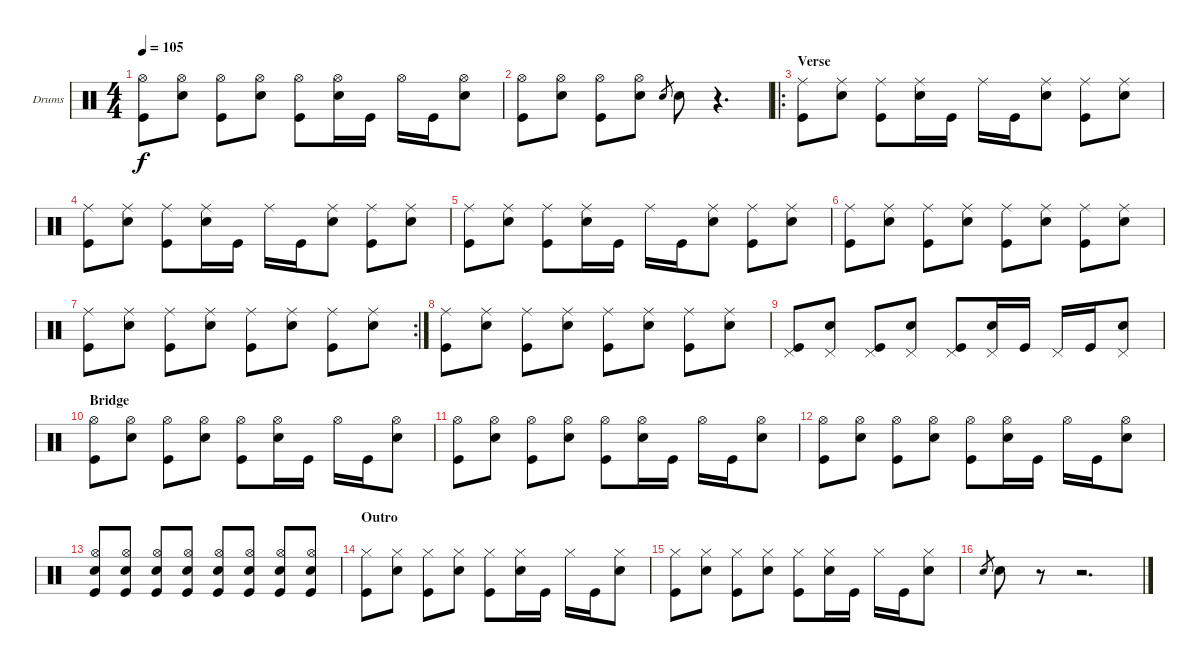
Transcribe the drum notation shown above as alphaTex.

\bracketExtendMode groupsimilarinstruments
\firstSystemTrackNameOrientation horizontal
\otherSystemsTrackNameOrientation horizontal
\track ("Fabrizio" "Drums") {instrument percussion}
\staff {score}
\articulation defaults
\ts (4 4)
\tempo 105
\clef neutral
\ks c
("Kick (hit)" "Hi-Hat (open)").8{dy f} ("Snare (hit) 2" "Hi-Hat (open)").8 ("Kick (hit)" "Hi-Hat (open)").8 ("Snare (hit) 2" "Hi-Hat (open)").8 ("Kick (hit)" "Hi-Hat (open)").8 ("Snare (hit) 2" "Hi-Hat (open)").16 "Kick (hit)".16 "Hi-Hat (open)".16 "Kick (hit)".16 ("Snare (hit) 2" "Hi-Hat (open)").8 |
("Kick (hit)" "Hi-Hat (open)").8 ("Snare (hit) 2" "Hi-Hat (open)").8 ("Kick (hit)" "Hi-Hat (open)").8 ("Snare (hit) 2" "Hi-Hat (open)").8 "Snare (hit) 2".8{gr} "Snare (hit) 2".8 r.4{d} |
\ro
\section ("" "Verse")
("Ride (middle)" "Kick (hit)").8 ("Ride (middle)" "Snare (hit) 2").8 ("Ride (middle)" "Kick (hit)").8 ("Ride (middle)" "Snare (hit) 2").16 "Kick (hit)".16 "Ride (middle)".16 "Kick (hit)".16 ("Ride (middle)" "Snare (hit) 2").8 ("Ride (middle)" "Kick (hit)").8 ("Ride (middle)" "Snare (hit) 2").8 |
("Ride (middle)" "Kick (hit)").8 ("Ride (middle)" "Snare (hit) 2").8 ("Ride (middle)" "Kick (hit)").8 ("Ride (middle)" "Snare (hit) 2").16 "Kick (hit)".16 "Ride (middle)".16 "Kick (hit)".16 ("Ride (middle)" "Snare (hit) 2").8 ("Ride (middle)" "Kick (hit)").8 ("Ride (middle)" "Snare (hit) 2").8 |
("Ride (middle)" "Kick (hit)").8 ("Ride (middle)" "Snare (hit) 2").8 ("Ride (middle)" "Kick (hit)").8 ("Ride (middle)" "Snare (hit) 2").16 "Kick (hit)".16 "Ride (middle)".16 "Kick (hit)".16 ("Ride (middle)" "Snare (hit) 2").8 ("Ride (middle)" "Kick (hit)").8 ("Ride (middle)" "Snare (hit) 2").8 |
("Ride (middle)" "Kick (hit)").8 ("Ride (middle)" "Snare (hit) 2").8 ("Ride (middle)" "Kick (hit)").8 ("Ride (middle)" "Snare (hit) 2").8 ("Ride (middle)" "Kick (hit)").8 ("Ride (middle)" "Snare (hit) 2").8 ("Ride (middle)" "Kick (hit)").8 ("Ride (middle)" "Snare (hit) 2").8 |
\rc 2
("Ride (middle)" "Kick (hit)").8 ("Ride (middle)" "Snare (hit) 2").8 ("Ride (middle)" "Kick (hit)").8 ("Ride (middle)" "Snare (hit) 2").8 ("Ride (middle)" "Kick (hit)").8 ("Ride (middle)" "Snare (hit) 2").8 ("Ride (middle)" "Kick (hit)").8 ("Ride (middle)" "Snare (hit) 2").8 |
("Ride (middle)" "Kick (hit)").8 ("Ride (middle)" "Snare (hit) 2").8 ("Ride (middle)" "Kick (hit)").8 ("Ride (middle)" "Snare (hit) 2").8 ("Ride (middle)" "Kick (hit)").8 ("Ride (middle)" "Snare (hit) 2").8 ("Ride (middle)" "Kick (hit)").8 ("Ride (middle)" "Snare (hit) 2").8 |
("Pedal Hi-Hat (hit)" "Kick (hit)").8 ("Pedal Hi-Hat (hit)" "Snare (hit) 2").8 ("Pedal Hi-Hat (hit)" "Kick (hit)").8 ("Pedal Hi-Hat (hit)" "Snare (hit) 2").8 ("Pedal Hi-Hat (hit)" "Kick (hit)").8 ("Pedal Hi-Hat (hit)" "Snare (hit) 2").16 "Kick (hit)".16 "Pedal Hi-Hat (hit)".16 "Kick (hit)".16 ("Pedal Hi-Hat (hit)" "Snare (hit) 2").8 |
\section ("" "Bridge")
("Kick (hit)" "Hi-Hat (open)").8 ("Snare (hit) 2" "Hi-Hat (open)").8 ("Kick (hit)" "Hi-Hat (open)").8 ("Snare (hit) 2" "Hi-Hat (open)").8 ("Kick (hit)" "Hi-Hat (open)").8 ("Snare (hit) 2" "Hi-Hat (open)").16 "Kick (hit)".16 "Hi-Hat (open)".16 "Kick (hit)".16 ("Snare (hit) 2" "Hi-Hat (open)").8 |
("Kick (hit)" "Hi-Hat (open)").8 ("Snare (hit) 2" "Hi-Hat (open)").8 ("Kick (hit)" "Hi-Hat (open)").8 ("Snare (hit) 2" "Hi-Hat (open)").8 ("Kick (hit)" "Hi-Hat (open)").8 ("Snare (hit) 2" "Hi-Hat (open)").16 "Kick (hit)".16 "Hi-Hat (open)".16 "Kick (hit)".16 ("Snare (hit) 2" "Hi-Hat (open)").8 |
("Kick (hit)" "Hi-Hat (open)").8 ("Snare (hit) 2" "Hi-Hat (open)").8 ("Kick (hit)" "Hi-Hat (open)").8 ("Snare (hit) 2" "Hi-Hat (open)").8 ("Kick (hit)" "Hi-Hat (open)").8 ("Snare (hit) 2" "Hi-Hat (open)").16 "Kick (hit)".16 "Hi-Hat (open)".16 "Kick (hit)".16 ("Snare (hit) 2" "Hi-Hat (open)").8 |
("Kick (hit)" "Hi-Hat (open)" "Snare (hit) 2").8 ("Snare (hit) 2" "Hi-Hat (open)" "Kick (hit)").8 ("Kick (hit)" "Hi-Hat (open)" "Snare (hit) 2").8 ("Snare (hit) 2" "Hi-Hat (open)" "Kick (hit)").8 ("Kick (hit)" "Hi-Hat (open)" "Snare (hit) 2").8 ("Kick (hit)" "Hi-Hat (open)" "Snare (hit) 2").8 ("Kick (hit)" "Hi-Hat (open)" "Snare (hit) 2").8 ("Kick (hit)" "Hi-Hat (open)" "Snare (hit) 2").8 |
\section ("" "Outro")
("Kick (hit)" "Hi-Hat (closed)").8 ("Snare (hit) 2" "Hi-Hat (closed)").8 ("Kick (hit)" "Hi-Hat (closed)").8 ("Snare (hit) 2" "Hi-Hat (closed)").8 ("Kick (hit)" "Hi-Hat (closed)").8 ("Snare (hit) 2" "Hi-Hat (closed)").16 "Kick (hit)".16 "Hi-Hat (closed)".16 "Kick (hit)".16 ("Snare (hit) 2" "Hi-Hat (closed)").8 |
("Kick (hit)" "Hi-Hat (closed)").8 ("Snare (hit) 2" "Hi-Hat (closed)").8 ("Kick (hit)" "Hi-Hat (closed)").8 ("Snare (hit) 2" "Hi-Hat (closed)").8 ("Kick (hit)" "Hi-Hat (closed)").8 ("Snare (hit) 2" "Hi-Hat (closed)").16 "Kick (hit)".16 "Hi-Hat (closed)".16 "Kick (hit)".16 ("Snare (hit) 2" "Hi-Hat (closed)").8 |
"Snare (hit) 2".8{gr} "Snare (hit) 2".8 r.8 r.2{d}
